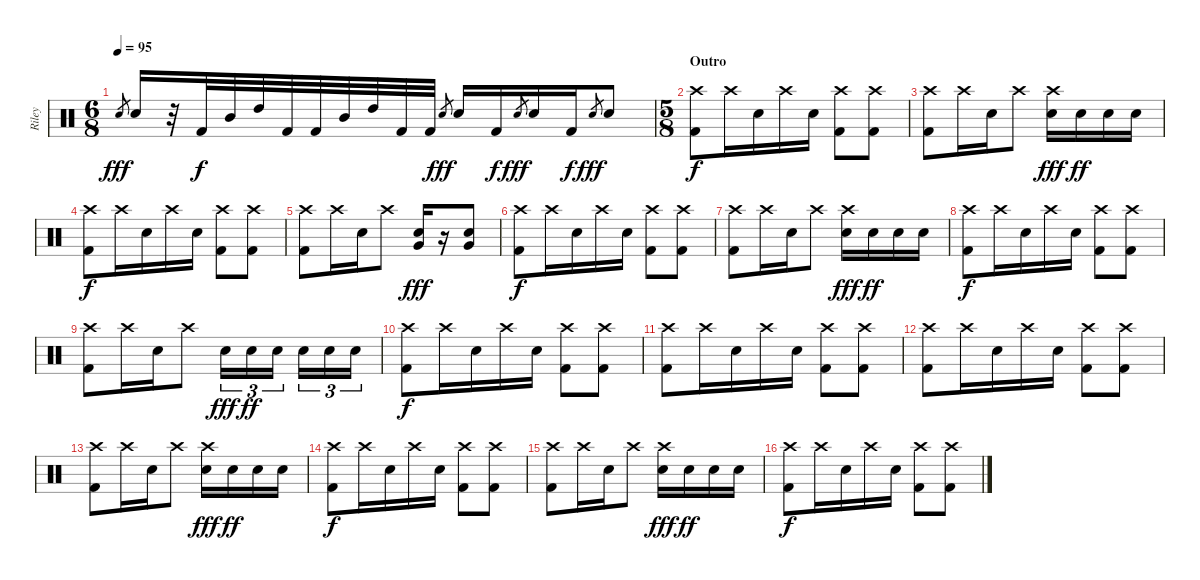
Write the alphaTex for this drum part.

\track ("Riley" "Riley") {instrument percussion}
\staff {score}
\articulation defaults
\ts (6 8)
\tempo 95
\clef neutral
\ks c "Electric Snare (hit)".8{gr dy fff} "Electric Snare (hit)".16
r.32 "Kick (hit) 2".32{dy f} "Mid Tom (hit)".32 "High Tom (hit)".32 "Kick (hit) 2".32 "Kick (hit) 2".32 "Mid Tom (hit)".32 "High Tom (hit)".32 "Kick (hit) 2".32 "Kick (hit) 2".32 "Electric Snare (hit)".8{gr dy fff} "Electric Snare (hit)".16 "Kick (hit) 2".16{dy f} "Electric Snare (hit)".8{gr dy fff} "Electric Snare (hit)".16 "Kick (hit) 2".16{dy f} "Electric Snare (hit)".8{gr dy fff} "Electric Snare (hit)".8 |
\ts (5 8)
\section ("" "Outro")
("Crash high (hit)" "Kick (hit) 2").8{dy f} "Crash high (hit)".16 "Electric Snare (hit)".16 "Crash high (hit)".16 "Electric Snare (hit)".16 ("Crash high (hit)" "Kick (hit) 2").8 ("Crash high (hit)" "Kick (hit) 2").8 |
("Crash high (hit)" "Kick (hit) 2").8 "Crash high (hit)".16 "Electric Snare (hit)".16 "Crash high (hit)".8 ("Crash high (hit)" "Electric Snare (hit)").16{dy fff} "Electric Snare (hit)".16{dy ff} "Electric Snare (hit)".16 "Electric Snare (hit)".16 |
("Crash high (hit)" "Kick (hit) 2").8{dy f} "Crash high (hit)".16 "Electric Snare (hit)".16 "Crash high (hit)".16 "Electric Snare (hit)".16 ("Crash high (hit)" "Kick (hit) 2").8 ("Crash high (hit)" "Kick (hit) 2").8 |
("Crash high (hit)" "Kick (hit) 2").8 "Crash high (hit)".16 "Electric Snare (hit)".16 "Crash high (hit)".8 ("Electric Snare (hit)" "Very Low Tom (hit)").16{dy fff} r.16 ("Electric Snare (hit)" "Very Low Tom (hit)").8 |
("Crash high (hit)" "Kick (hit) 2").8{dy f} "Crash high (hit)".16 "Electric Snare (hit)".16 "Crash high (hit)".16 "Electric Snare (hit)".16 ("Crash high (hit)" "Kick (hit) 2").8 ("Crash high (hit)" "Kick (hit) 2").8 |
("Crash high (hit)" "Kick (hit) 2").8 "Crash high (hit)".16 "Electric Snare (hit)".16 "Crash high (hit)".8 ("Crash high (hit)" "Electric Snare (hit)").16{dy fff} "Electric Snare (hit)".16{dy ff} "Electric Snare (hit)".16 "Electric Snare (hit)".16 |
("Crash high (hit)" "Kick (hit) 2").8{dy f} "Crash high (hit)".16 "Electric Snare (hit)".16 "Crash high (hit)".16 "Electric Snare (hit)".16 ("Crash high (hit)" "Kick (hit) 2").8 ("Crash high (hit)" "Kick (hit) 2").8 |
("Crash high (hit)" "Kick (hit) 2").8 "Crash high (hit)".16 "Electric Snare (hit)".16 "Crash high (hit)".8 "Electric Snare (hit)".16{tu (3 2) dy fff} "Electric Snare (hit)".16{tu (3 2) dy ff} "Electric Snare (hit)".16{tu (3 2)} "Electric Snare (hit)".16{tu (3 2)} "Electric Snare (hit)".16{tu (3 2)} "Electric Snare (hit)".16{tu (3 2)} |
("Crash high (hit)" "Kick (hit) 2").8{dy f} "Crash high (hit)".16 "Electric Snare (hit)".16 "Crash high (hit)".16 "Electric Snare (hit)".16 ("Crash high (hit)" "Kick (hit) 2").8 ("Crash high (hit)" "Kick (hit) 2").8 |
("Crash high (hit)" "Kick (hit) 2").8 "Crash high (hit)".16 "Electric Snare (hit)".16 "Crash high (hit)".16 "Electric Snare (hit)".16 ("Crash high (hit)" "Kick (hit) 2").8 ("Crash high (hit)" "Kick (hit) 2").8 |
("Crash high (hit)" "Kick (hit) 2").8 "Crash high (hit)".16 "Electric Snare (hit)".16 "Crash high (hit)".16 "Electric Snare (hit)".16 ("Crash high (hit)" "Kick (hit) 2").8 ("Crash high (hit)" "Kick (hit) 2").8 |
("Crash high (hit)" "Kick (hit) 2").8 "Crash high (hit)".16 "Electric Snare (hit)".16 "Crash high (hit)".8 ("Crash high (hit)" "Electric Snare (hit)").16{dy fff} "Electric Snare (hit)".16{dy ff} "Electric Snare (hit)".16 "Electric Snare (hit)".16 |
("Crash high (hit)" "Kick (hit) 2").8{dy f} "Crash high (hit)".16 "Electric Snare (hit)".16 "Crash high (hit)".16 "Electric Snare (hit)".16 ("Crash high (hit)" "Kick (hit) 2").8 ("Crash high (hit)" "Kick (hit) 2").8 |
("Crash high (hit)" "Kick (hit) 2").8 "Crash high (hit)".16 "Electric Snare (hit)".16 "Crash high (hit)".8 ("Crash high (hit)" "Electric Snare (hit)").16{dy fff} "Electric Snare (hit)".16{dy ff} "Electric Snare (hit)".16 "Electric Snare (hit)".16 |
("Crash high (hit)" "Kick (hit) 2").8{dy f} "Crash high (hit)".16 "Electric Snare (hit)".16 "Crash high (hit)".16 "Electric Snare (hit)".16 ("Crash high (hit)" "Kick (hit) 2").8 ("Crash high (hit)" "Kick (hit) 2").8
